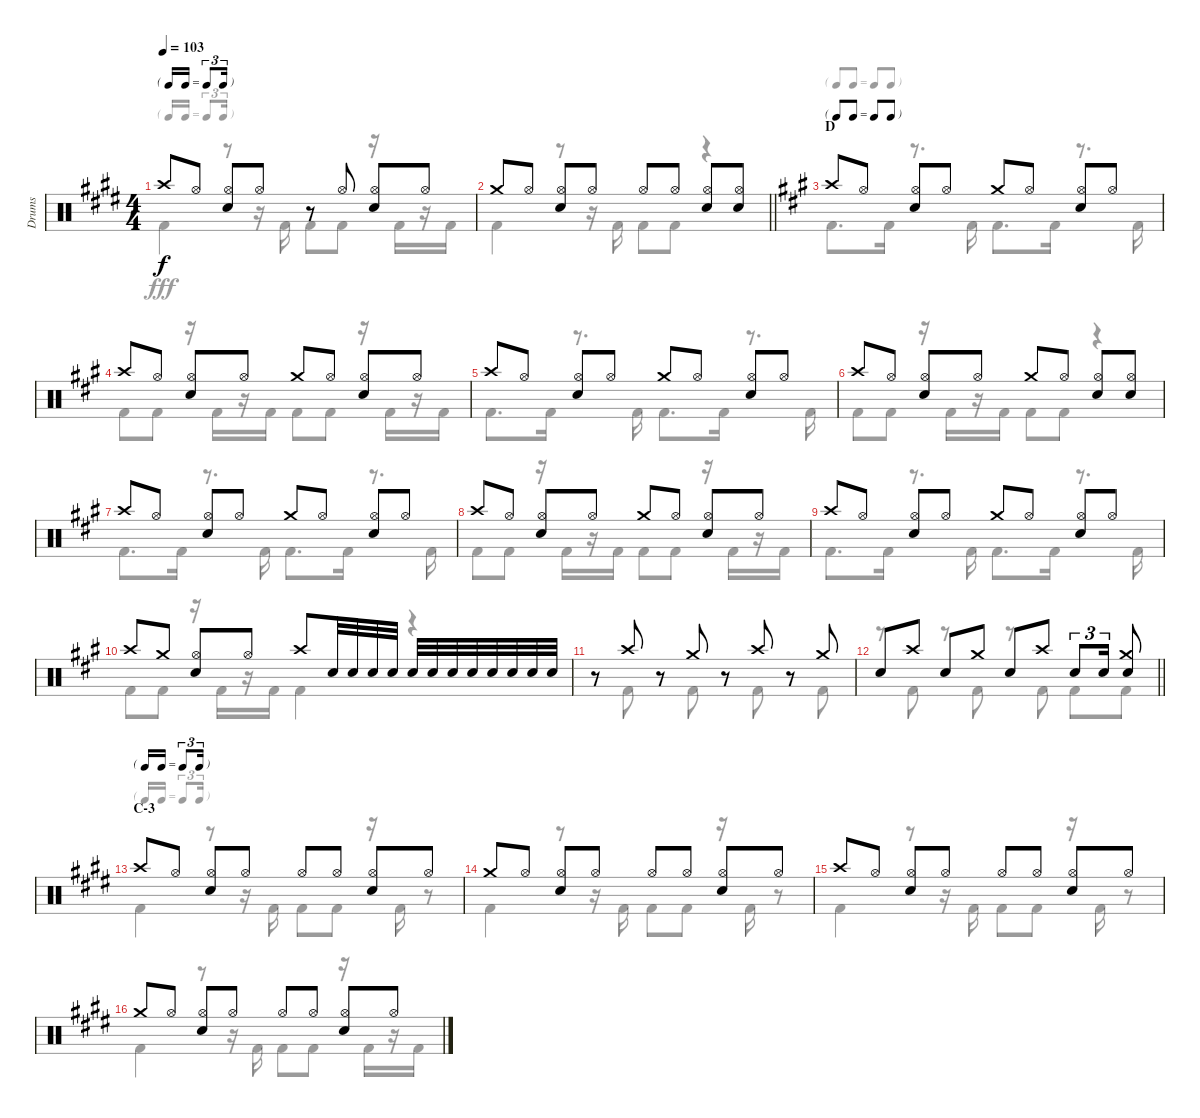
\track ("Drums" "Drums") {instrument percussion}
\staff {score}
\articulation defaults
\voice
\ts (4 4)
\tf triplet16th
\tempo 103
\clef neutral
\ks e "Crash high (hit)".8{dy f} "Hi-Hat (open)".8
("Hi-Hat (open)" "Snare (hit) 2").8 "Hi-Hat (open)".8 r.8 "Hi-Hat (open)".8 ("Hi-Hat (open)" "Snare (hit) 2").8 "Hi-Hat (open)".8 |
\barLineRight lightlight "Crash medium (hit)".8 "Hi-Hat (open)".8
("Hi-Hat (open)" "Snare (hit) 2").8 "Hi-Hat (open)".8 "Hi-Hat (open)".8 "Hi-Hat (open)".8 ("Hi-Hat (open)" "Snare (hit) 2").8 ("Hi-Hat (open)" "Snare (hit) 2").8 |
\tf none
\section ("" "D")
\ks f#minor "Crash high (hit)".8 "Hi-Hat (open)".8
("Hi-Hat (open)" "Snare (hit) 2").8 "Hi-Hat (open)".8 "Crash medium (hit)".8 "Hi-Hat (open)".8 ("Hi-Hat (open)" "Snare (hit) 2").8 "Hi-Hat (open)".8 |
"Crash high (hit)".8 "Hi-Hat (open)".8 ("Hi-Hat (open)" "Snare (hit) 2").8 "Hi-Hat (open)".8 "Crash medium (hit)".8 "Hi-Hat (open)".8 ("Hi-Hat (open)" "Snare (hit) 2").8 "Hi-Hat (open)".8 |
"Crash high (hit)".8 "Hi-Hat (open)".8 ("Hi-Hat (open)" "Snare (hit) 2").8 "Hi-Hat (open)".8 "Crash medium (hit)".8 "Hi-Hat (open)".8 ("Hi-Hat (open)" "Snare (hit) 2").8 "Hi-Hat (open)".8 |
"Crash high (hit)".8 "Hi-Hat (open)".8 ("Hi-Hat (open)" "Snare (hit) 2").8 "Hi-Hat (open)".8 "Crash medium (hit)".8 "Hi-Hat (open)".8 ("Hi-Hat (open)" "Snare (hit) 2").8 ("Hi-Hat (open)" "Snare (hit) 2").8 |
"Crash high (hit)".8 "Hi-Hat (open)".8 ("Hi-Hat (open)" "Snare (hit) 2").8 "Hi-Hat (open)".8 "Crash medium (hit)".8 "Hi-Hat (open)".8 ("Hi-Hat (open)" "Snare (hit) 2").8 "Hi-Hat (open)".8 |
"Crash high (hit)".8 "Hi-Hat (open)".8 ("Hi-Hat (open)" "Snare (hit) 2").8 "Hi-Hat (open)".8 "Crash medium (hit)".8 "Hi-Hat (open)".8 ("Hi-Hat (open)" "Snare (hit) 2").8 "Hi-Hat (open)".8 |
"Crash high (hit)".8 "Hi-Hat (open)".8 ("Hi-Hat (open)" "Snare (hit) 2").8 "Hi-Hat (open)".8 "Crash medium (hit)".8 "Hi-Hat (open)".8 ("Hi-Hat (open)" "Snare (hit) 2").8 "Hi-Hat (open)".8 |
"Crash high (hit)".8 "Crash medium (hit)".8 ("Hi-Hat (open)" "Snare (hit) 2").8 "Hi-Hat (open)".8 "Crash high (hit)".8 "Snare (hit) 2".32 "Snare (hit) 2".32 "Snare (hit) 2".32 "Snare (hit) 2".32 "Snare (hit) 2".32 "Snare (hit) 2".32 "Snare (hit) 2".32 "Snare (hit) 2".32 "Snare (hit) 2".32 "Snare (hit) 2".32 "Snare (hit) 2".32 "Snare (hit) 2".32 |
r.8 "Crash high (hit)".8 r.8 "Crash medium (hit)".8 r.8 "Crash high (hit)".8 r.8 "Crash medium (hit)".8 |
\barLineRight lightlight "Snare (hit) 2".8 "Crash high (hit)".8 "Snare (hit) 2".8 "Crash medium (hit)".8 "Snare (hit) 2".8 "Crash high (hit)".8 "Snare (hit) 2".8{tu (3 2)} "Snare (hit) 2".16{tu (3 2)}
("Crash medium (hit)" "Snare (hit) 2").8 |
\tf triplet16th
\section ("" "C-3")
\ks e "Crash high (hit)".8 "Hi-Hat (open)".8
("Hi-Hat (open)" "Snare (hit) 2").8 "Hi-Hat (open)".8 "Hi-Hat (open)".8 "Hi-Hat (open)".8 ("Hi-Hat (open)" "Snare (hit) 2").8 "Hi-Hat (open)".8 |
"Crash medium (hit)".8 "Hi-Hat (open)".8 ("Hi-Hat (open)" "Snare (hit) 2").8 "Hi-Hat (open)".8 "Hi-Hat (open)".8 "Hi-Hat (open)".8 ("Hi-Hat (open)" "Snare (hit) 2").8 "Hi-Hat (open)".8 |
"Crash high (hit)".8 "Hi-Hat (open)".8 ("Hi-Hat (open)" "Snare (hit) 2").8 "Hi-Hat (open)".8 "Hi-Hat (open)".8 "Hi-Hat (open)".8 ("Hi-Hat (open)" "Snare (hit) 2").8 "Hi-Hat (open)".8 |
"Crash medium (hit)".8 "Hi-Hat (open)".8 ("Hi-Hat (open)" "Snare (hit) 2").8 "Hi-Hat (open)".8 "Hi-Hat (open)".8 "Hi-Hat (open)".8 ("Hi-Hat (open)" "Snare (hit) 2").8 "Hi-Hat (open)".8
\voice
\clef neutral
\ottava regular
\simile none
\ks e "Kick (hit) 2".4{dy fff}
r.8 r.16 "Kick (hit) 2".16 "Kick (hit) 2".8 "Kick (hit) 2".8 r.16 "Kick (hit) 2".16 r.16 "Kick (hit) 2".16 |
\barLineRight lightlight "Kick (hit) 2".4
r.8 r.16 "Kick (hit) 2".16 "Kick (hit) 2".8 "Kick (hit) 2".8 r.4 |
\ks f#minor "Kick (hit) 2".8{d} "Kick (hit) 2".16
r.8{d} "Kick (hit) 2".16 "Kick (hit) 2".8{d} "Kick (hit) 2".16 r.8{d} "Kick (hit) 2".16 |
"Kick (hit) 2".8 "Kick (hit) 2".8 r.16 "Kick (hit) 2".16 r.16 "Kick (hit) 2".16 "Kick (hit) 2".8 "Kick (hit) 2".8 r.16 "Kick (hit) 2".16 r.16 "Kick (hit) 2".16 |
"Kick (hit) 2".8{d} "Kick (hit) 2".16 r.8{d} "Kick (hit) 2".16 "Kick (hit) 2".8{d} "Kick (hit) 2".16 r.8{d} "Kick (hit) 2".16 |
"Kick (hit) 2".8 "Kick (hit) 2".8 r.16 "Kick (hit) 2".16 r.16 "Kick (hit) 2".16 "Kick (hit) 2".8 "Kick (hit) 2".8 r.4 |
"Kick (hit) 2".8{d} "Kick (hit) 2".16 r.8{d} "Kick (hit) 2".16 "Kick (hit) 2".8{d} "Kick (hit) 2".16 r.8{d} "Kick (hit) 2".16 |
"Kick (hit) 2".8 "Kick (hit) 2".8 r.16 "Kick (hit) 2".16 r.16 "Kick (hit) 2".16 "Kick (hit) 2".8 "Kick (hit) 2".8 r.16 "Kick (hit) 2".16 r.16 "Kick (hit) 2".16 |
"Kick (hit) 2".8{d} "Kick (hit) 2".16 r.8{d} "Kick (hit) 2".16 "Kick (hit) 2".8{d} "Kick (hit) 2".16 r.8{d} "Kick (hit) 2".16 |
"Kick (hit) 2".8 "Kick (hit) 2".8 r.16 "Kick (hit) 2".16 r.16 "Kick (hit) 2".16 "Kick (hit) 2".4 r.4 |
r.8 "Kick (hit) 2".8 r.8 "Kick (hit) 2".8 r.8 "Kick (hit) 2".8 r.8 "Kick (hit) 2".8 |
\barLineRight lightlight
r.8 "Kick (hit) 2".8 r.8 "Kick (hit) 2".8 r.8 "Kick (hit) 2".8 "Kick (hit) 2".8 "Kick (hit) 2".8 |
\ks e "Kick (hit) 2".4
r.8 r.16 "Kick (hit) 2".16 "Kick (hit) 2".8 "Kick (hit) 2".8 r.16 "Kick (hit) 2".16 r.8 |
"Kick (hit) 2".4 r.8 r.16 "Kick (hit) 2".16 "Kick (hit) 2".8 "Kick (hit) 2".8 r.16 "Kick (hit) 2".16 r.8 |
"Kick (hit) 2".4 r.8 r.16 "Kick (hit) 2".16 "Kick (hit) 2".8 "Kick (hit) 2".8 r.16 "Kick (hit) 2".16 r.8 |
"Kick (hit) 2".4 r.8 r.16 "Kick (hit) 2".16 "Kick (hit) 2".8 "Kick (hit) 2".8 r.16 "Kick (hit) 2".16 r.16 "Kick (hit) 2".16
